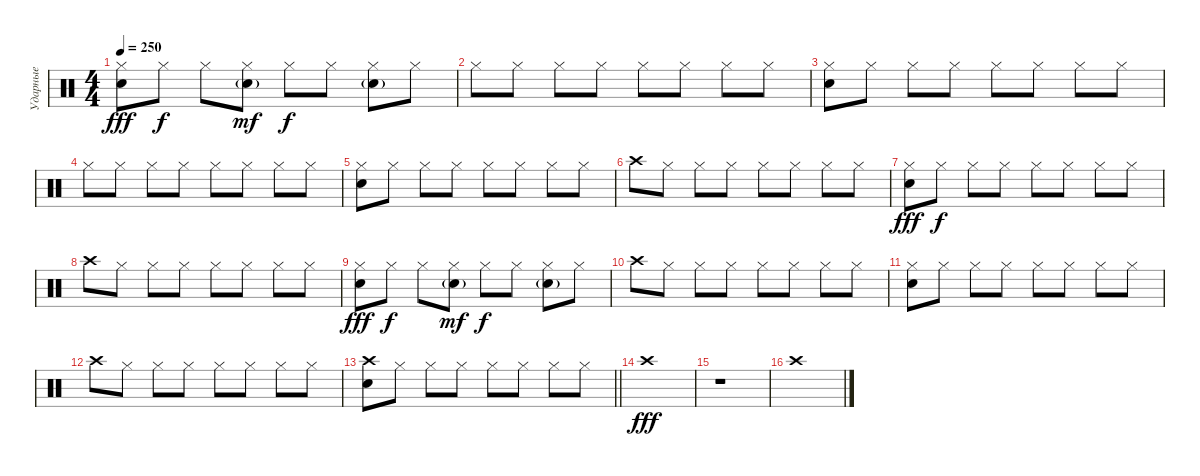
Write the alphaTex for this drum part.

\track ("Ударные" "Ударные") {instrument percussion}
\staff {score}
\articulation defaults
\ts (4 4)
\tempo 250
\clef neutral
\ks c
("Hi-Hat (closed)" "Snare (hit) 2").8{dy fff} "Hi-Hat (closed)".8{dy f} "Hi-Hat (closed)".8 ("Hi-Hat (closed)" "Snare (hit) 2"{g}).8{dy mf} "Hi-Hat (closed)".8{dy f} "Hi-Hat (closed)".8 ("Hi-Hat (closed)" "Snare (hit) 2"{g}).8 "Hi-Hat (closed)".8 |
"Hi-Hat (closed)".8 "Hi-Hat (closed)".8 "Hi-Hat (closed)".8 "Hi-Hat (closed)".8 "Hi-Hat (closed)".8 "Hi-Hat (closed)".8 "Hi-Hat (closed)".8 "Hi-Hat (closed)".8 |
("Hi-Hat (closed)" "Snare (hit) 2").8 "Hi-Hat (closed)".8 "Hi-Hat (closed)".8 "Hi-Hat (closed)".8 "Hi-Hat (closed)".8 "Hi-Hat (closed)".8 "Hi-Hat (closed)".8 "Hi-Hat (closed)".8 |
"Hi-Hat (closed)".8 "Hi-Hat (closed)".8 "Hi-Hat (closed)".8 "Hi-Hat (closed)".8 "Hi-Hat (closed)".8 "Hi-Hat (closed)".8 "Hi-Hat (closed)".8 "Hi-Hat (closed)".8 |
("Hi-Hat (closed)" "Snare (hit) 2").8 "Hi-Hat (closed)".8 "Hi-Hat (closed)".8 "Hi-Hat (closed)".8 "Hi-Hat (closed)".8 "Hi-Hat (closed)".8 "Hi-Hat (closed)".8 "Hi-Hat (closed)".8 |
"Crash high (hit)".8 "Hi-Hat (closed)".8 "Hi-Hat (closed)".8 "Hi-Hat (closed)".8 "Hi-Hat (closed)".8 "Hi-Hat (closed)".8 "Hi-Hat (closed)".8 "Hi-Hat (closed)".8 |
("Hi-Hat (closed)" "Snare (hit) 2").8{dy fff} "Hi-Hat (closed)".8{dy f} "Hi-Hat (closed)".8 "Hi-Hat (closed)".8 "Hi-Hat (closed)".8 "Hi-Hat (closed)".8 "Hi-Hat (closed)".8 "Hi-Hat (closed)".8 |
"Crash high (hit)".8 "Hi-Hat (closed)".8 "Hi-Hat (closed)".8 "Hi-Hat (closed)".8 "Hi-Hat (closed)".8 "Hi-Hat (closed)".8 "Hi-Hat (closed)".8 "Hi-Hat (closed)".8 |
("Hi-Hat (closed)" "Snare (hit) 2").8{dy fff} "Hi-Hat (closed)".8{dy f} "Hi-Hat (closed)".8 ("Hi-Hat (closed)" "Snare (hit) 2"{g}).8{dy mf} "Hi-Hat (closed)".8{dy f} "Hi-Hat (closed)".8 ("Hi-Hat (closed)" "Snare (hit) 2"{g}).8 "Hi-Hat (closed)".8 |
"Crash high (hit)".8 "Hi-Hat (closed)".8 "Hi-Hat (closed)".8 "Hi-Hat (closed)".8 "Hi-Hat (closed)".8 "Hi-Hat (closed)".8 "Hi-Hat (closed)".8 "Hi-Hat (closed)".8 |
("Hi-Hat (closed)" "Snare (hit) 2").8 "Hi-Hat (closed)".8 "Hi-Hat (closed)".8 "Hi-Hat (closed)".8 "Hi-Hat (closed)".8 "Hi-Hat (closed)".8 "Hi-Hat (closed)".8 "Hi-Hat (closed)".8 |
"Crash high (hit)".8 "Hi-Hat (closed)".8 "Hi-Hat (closed)".8 "Hi-Hat (closed)".8 "Hi-Hat (closed)".8 "Hi-Hat (closed)".8 "Hi-Hat (closed)".8 "Hi-Hat (closed)".8 |
\barLineRight lightlight
("Crash high (hit)" "Snare (hit) 2").8 "Hi-Hat (closed)".8 "Hi-Hat (closed)".8 "Hi-Hat (closed)".8 "Hi-Hat (closed)".8 "Hi-Hat (closed)".8 "Hi-Hat (closed)".8 "Hi-Hat (closed)".8 |
"Crash high (hit)".1{dy fff} |
r.1 |
"Crash high (hit)".1
